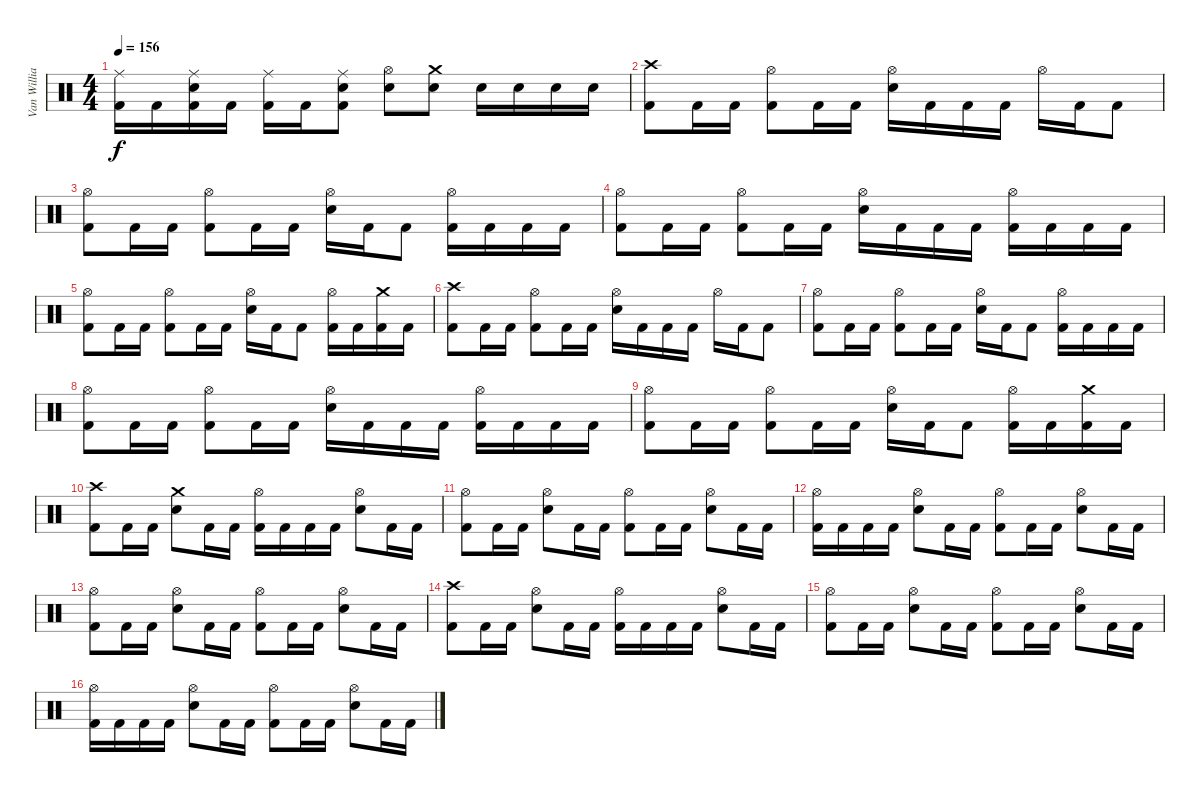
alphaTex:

\track ("Van Williams" "Van Willia") {instrument percussion}
\staff {score}
\articulation defaults
\ts (4 4)
\tempo 156
\clef neutral
\ks c
("Ride (middle)" "Kick (hit) 2").16{dy f} "Kick (hit) 2".16 ("Ride (middle)" "Electric Snare (hit)" "Kick (hit) 2").16 "Kick (hit) 2".16 ("Ride (middle)" "Kick (hit) 2").16 "Kick (hit) 2".16 ("Ride (middle)" "Electric Snare (hit)" "Kick (hit) 2").8 ("Hi-Hat (open)" "Electric Snare (hit)").8 ("Crash medium (hit)" "Electric Snare (hit)").8 "Electric Snare (hit)".16 "Electric Snare (hit)".16 "Electric Snare (hit)".16 "Electric Snare (hit)".16 |
\section ("" "")
("Crash high (hit)" "Kick (hit) 2").8 "Kick (hit) 2".16 "Kick (hit) 2".16 ("Hi-Hat (open)" "Kick (hit) 2").8 "Kick (hit) 2".16 "Kick (hit) 2".16 ("Hi-Hat (open)" "Electric Snare (hit)").16 "Kick (hit) 2".16 "Kick (hit) 2".16 "Kick (hit) 2".16 "Hi-Hat (open)".16 "Kick (hit) 2".16 "Kick (hit) 2".8 |
("Hi-Hat (open)" "Kick (hit) 2").8 "Kick (hit) 2".16 "Kick (hit) 2".16 ("Hi-Hat (open)" "Kick (hit) 2").8 "Kick (hit) 2".16 "Kick (hit) 2".16 ("Hi-Hat (open)" "Electric Snare (hit)").16 "Kick (hit) 2".16 "Kick (hit) 2".8 ("Hi-Hat (open)" "Kick (hit) 2").16 "Kick (hit) 2".16 "Kick (hit) 2".16 "Kick (hit) 2".16 |
("Hi-Hat (open)" "Kick (hit) 2").8 "Kick (hit) 2".16 "Kick (hit) 2".16 ("Hi-Hat (open)" "Kick (hit) 2").8 "Kick (hit) 2".16 "Kick (hit) 2".16 ("Hi-Hat (open)" "Electric Snare (hit)").16 "Kick (hit) 2".16 "Kick (hit) 2".16 "Kick (hit) 2".16 ("Hi-Hat (open)" "Kick (hit) 2").16 "Kick (hit) 2".16 "Kick (hit) 2".16 "Kick (hit) 2".16 |
("Hi-Hat (open)" "Kick (hit) 2").8 "Kick (hit) 2".16 "Kick (hit) 2".16 ("Hi-Hat (open)" "Kick (hit) 2").8 "Kick (hit) 2".16 "Kick (hit) 2".16 ("Hi-Hat (open)" "Electric Snare (hit)").16 "Kick (hit) 2".16 "Kick (hit) 2".8 ("Hi-Hat (open)" "Kick (hit) 2").16 "Kick (hit) 2".16 ("Crash medium (hit)" "Kick (hit) 2").16 "Kick (hit) 2".16 |
("Crash high (hit)" "Kick (hit) 2").8 "Kick (hit) 2".16 "Kick (hit) 2".16 ("Hi-Hat (open)" "Kick (hit) 2").8 "Kick (hit) 2".16 "Kick (hit) 2".16 ("Hi-Hat (open)" "Electric Snare (hit)").16 "Kick (hit) 2".16 "Kick (hit) 2".16 "Kick (hit) 2".16 "Hi-Hat (open)".16 "Kick (hit) 2".16 "Kick (hit) 2".8 |
("Hi-Hat (open)" "Kick (hit) 2").8 "Kick (hit) 2".16 "Kick (hit) 2".16 ("Hi-Hat (open)" "Kick (hit) 2").8 "Kick (hit) 2".16 "Kick (hit) 2".16 ("Hi-Hat (open)" "Electric Snare (hit)").16 "Kick (hit) 2".16 "Kick (hit) 2".8 ("Hi-Hat (open)" "Kick (hit) 2").16 "Kick (hit) 2".16 "Kick (hit) 2".16 "Kick (hit) 2".16 |
("Hi-Hat (open)" "Kick (hit) 2").8 "Kick (hit) 2".16 "Kick (hit) 2".16 ("Hi-Hat (open)" "Kick (hit) 2").8 "Kick (hit) 2".16 "Kick (hit) 2".16 ("Hi-Hat (open)" "Electric Snare (hit)").16 "Kick (hit) 2".16 "Kick (hit) 2".16 "Kick (hit) 2".16 ("Hi-Hat (open)" "Kick (hit) 2").16 "Kick (hit) 2".16 "Kick (hit) 2".16 "Kick (hit) 2".16 |
("Hi-Hat (open)" "Kick (hit) 2").8 "Kick (hit) 2".16 "Kick (hit) 2".16 ("Hi-Hat (open)" "Kick (hit) 2").8 "Kick (hit) 2".16 "Kick (hit) 2".16 ("Hi-Hat (open)" "Electric Snare (hit)").16 "Kick (hit) 2".16 "Kick (hit) 2".8 ("Hi-Hat (open)" "Kick (hit) 2").16 "Kick (hit) 2".16 ("Crash medium (hit)" "Kick (hit) 2").16 "Kick (hit) 2".16 |
\section ("" "")
("Crash high (hit)" "Kick (hit) 2").8 "Kick (hit) 2".16 "Kick (hit) 2".16 ("Crash medium (hit)" "Electric Snare (hit)").8 "Kick (hit) 2".16 "Kick (hit) 2".16 ("Hi-Hat (open)" "Kick (hit) 2").16 "Kick (hit) 2".16 "Kick (hit) 2".16 "Kick (hit) 2".16 ("Hi-Hat (open)" "Electric Snare (hit)").8 "Kick (hit) 2".16 "Kick (hit) 2".16 |
("Hi-Hat (open)" "Kick (hit) 2").8 "Kick (hit) 2".16 "Kick (hit) 2".16 ("Hi-Hat (open)" "Electric Snare (hit)").8 "Kick (hit) 2".16 "Kick (hit) 2".16 ("Hi-Hat (open)" "Kick (hit) 2").8 "Kick (hit) 2".16 "Kick (hit) 2".16 ("Hi-Hat (open)" "Electric Snare (hit)").8 "Kick (hit) 2".16 "Kick (hit) 2".16 |
("Hi-Hat (open)" "Kick (hit) 2").16 "Kick (hit) 2".16 "Kick (hit) 2".16 "Kick (hit) 2".16 ("Hi-Hat (open)" "Electric Snare (hit)").8 "Kick (hit) 2".16 "Kick (hit) 2".16 ("Hi-Hat (open)" "Kick (hit) 2").8 "Kick (hit) 2".16 "Kick (hit) 2".16 ("Hi-Hat (open)" "Electric Snare (hit)").8 "Kick (hit) 2".16 "Kick (hit) 2".16 |
("Hi-Hat (open)" "Kick (hit) 2").8 "Kick (hit) 2".16 "Kick (hit) 2".16 ("Hi-Hat (open)" "Electric Snare (hit)").8 "Kick (hit) 2".16 "Kick (hit) 2".16 ("Hi-Hat (open)" "Kick (hit) 2").8 "Kick (hit) 2".16 "Kick (hit) 2".16 ("Hi-Hat (open)" "Electric Snare (hit)").8 "Kick (hit) 2".16 "Kick (hit) 2".16 |
("Crash high (hit)" "Kick (hit) 2").8 "Kick (hit) 2".16 "Kick (hit) 2".16 ("Hi-Hat (open)" "Electric Snare (hit)").8 "Kick (hit) 2".16 "Kick (hit) 2".16 ("Hi-Hat (open)" "Kick (hit) 2").16 "Kick (hit) 2".16 "Kick (hit) 2".16 "Kick (hit) 2".16 ("Hi-Hat (open)" "Electric Snare (hit)").8 "Kick (hit) 2".16 "Kick (hit) 2".16 |
("Hi-Hat (open)" "Kick (hit) 2").8 "Kick (hit) 2".16 "Kick (hit) 2".16 ("Hi-Hat (open)" "Electric Snare (hit)").8 "Kick (hit) 2".16 "Kick (hit) 2".16 ("Hi-Hat (open)" "Kick (hit) 2").8 "Kick (hit) 2".16 "Kick (hit) 2".16 ("Hi-Hat (open)" "Electric Snare (hit)").8 "Kick (hit) 2".16 "Kick (hit) 2".16 |
("Hi-Hat (open)" "Kick (hit) 2").16 "Kick (hit) 2".16 "Kick (hit) 2".16 "Kick (hit) 2".16 ("Hi-Hat (open)" "Electric Snare (hit)").8 "Kick (hit) 2".16 "Kick (hit) 2".16 ("Hi-Hat (open)" "Kick (hit) 2").8 "Kick (hit) 2".16 "Kick (hit) 2".16 ("Hi-Hat (open)" "Electric Snare (hit)").8 "Kick (hit) 2".16 "Kick (hit) 2".16
